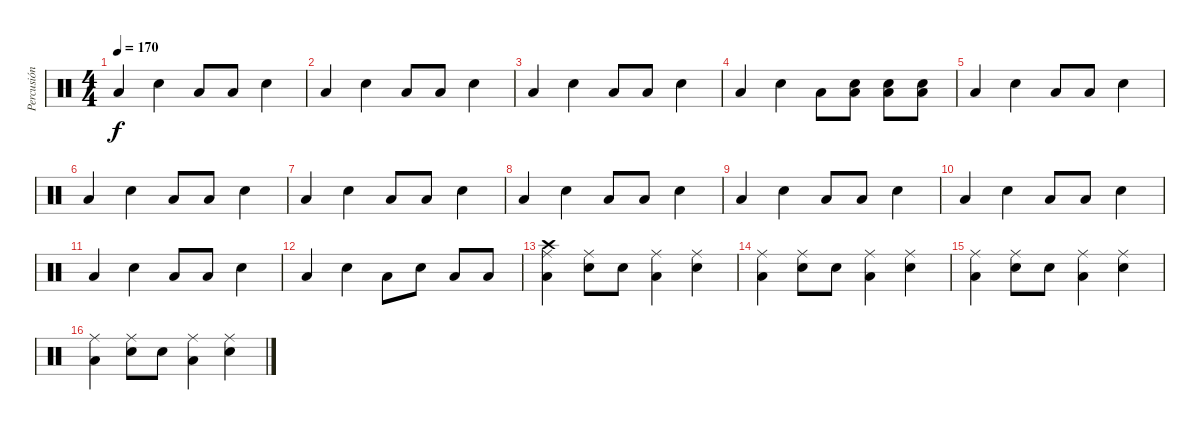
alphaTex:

\track ("Percusión" "Percusión") {instrument percussion}
\staff {score}
\articulation defaults
\ts (4 4)
\tempo 170
\clef neutral
\ks c "Low Floor Tom (hit)".4{dy f} "Snare (hit) 2".4 "Low Floor Tom (hit)".8 "Low Floor Tom (hit)".8 "Snare (hit) 2".4
|
"Low Floor Tom (hit)".4 "Snare (hit) 2".4 "Low Floor Tom (hit)".8 "Low Floor Tom (hit)".8 "Snare (hit) 2".4 |
"Low Floor Tom (hit)".4 "Snare (hit) 2".4 "Low Floor Tom (hit)".8 "Low Floor Tom (hit)".8 "Snare (hit) 2".4 |
"Low Floor Tom (hit)".4 "Snare (hit) 2".4 "Low Floor Tom (hit)".8 ("Low Floor Tom (hit)" "Snare (hit) 2").8 ("Low Floor Tom (hit)" "Snare (hit) 2").8 ("Low Floor Tom (hit)" "Snare (hit) 2").8 |
"Low Floor Tom (hit)".4 "Snare (hit) 2".4 "Low Floor Tom (hit)".8 "Low Floor Tom (hit)".8 "Snare (hit) 2".4 |
"Low Floor Tom (hit)".4 "Snare (hit) 2".4 "Low Floor Tom (hit)".8 "Low Floor Tom (hit)".8 "Snare (hit) 2".4 |
"Low Floor Tom (hit)".4 "Snare (hit) 2".4 "Low Floor Tom (hit)".8 "Low Floor Tom (hit)".8 "Snare (hit) 2".4 |
"Low Floor Tom (hit)".4 "Snare (hit) 2".4 "Low Floor Tom (hit)".8 "Low Floor Tom (hit)".8 "Snare (hit) 2".4 |
"Low Floor Tom (hit)".4 "Snare (hit) 2".4 "Low Floor Tom (hit)".8 "Low Floor Tom (hit)".8 "Snare (hit) 2".4 |
"Low Floor Tom (hit)".4 "Snare (hit) 2".4 "Low Floor Tom (hit)".8 "Low Floor Tom (hit)".8 "Snare (hit) 2".4 |
"Low Floor Tom (hit)".4 "Snare (hit) 2".4 "Low Floor Tom (hit)".8 "Low Floor Tom (hit)".8 "Snare (hit) 2".4 |
"Low Floor Tom (hit)".4 "Snare (hit) 2".4 "Low Floor Tom (hit)".8 "Snare (hit) 2".8 "Low Floor Tom (hit)".8 "Low Floor Tom (hit)".8 |
("Low Floor Tom (hit)" "Ride (middle)" "Crash high (hit)").4 ("Snare (hit) 2" "Ride (middle)").8 "Snare (hit) 2".8 ("Low Floor Tom (hit)" "Ride (middle)").4 ("Snare (hit) 2" "Ride (middle)").4 |
("Low Floor Tom (hit)" "Ride (middle)").4 ("Snare (hit) 2" "Ride (middle)").8 "Snare (hit) 2".8 ("Low Floor Tom (hit)" "Ride (middle)").4 ("Snare (hit) 2" "Ride (middle)").4 |
("Low Floor Tom (hit)" "Ride (middle)").4 ("Snare (hit) 2" "Ride (middle)").8 "Snare (hit) 2".8 ("Low Floor Tom (hit)" "Ride (middle)").4 ("Snare (hit) 2" "Ride (middle)").4 |
("Low Floor Tom (hit)" "Ride (middle)").4 ("Snare (hit) 2" "Ride (middle)").8 "Snare (hit) 2".8 ("Low Floor Tom (hit)" "Ride (middle)").4 ("Snare (hit) 2" "Ride (middle)").4
